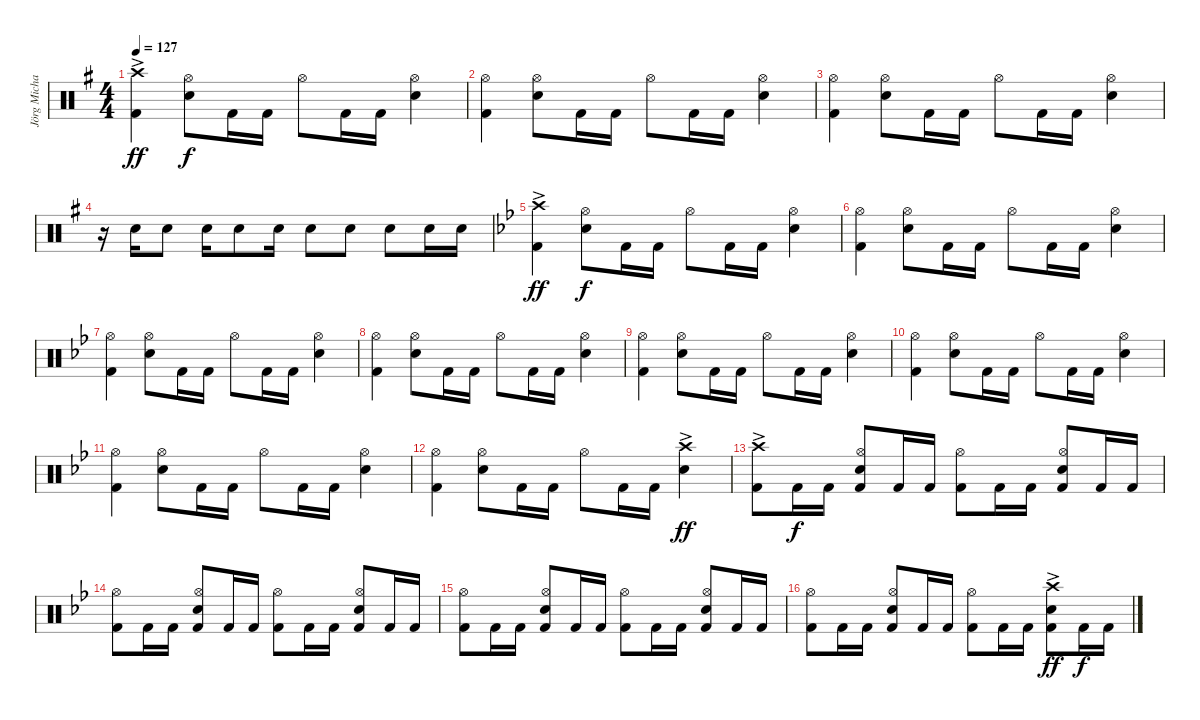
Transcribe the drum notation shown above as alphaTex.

\track ("Jörg Michael" "Jörg Micha") {instrument percussion}
\staff {score}
\articulation defaults
\ts (4 4)
\tempo 127
\clef neutral
\ks g
("Crash high (hit)"{ac} "Kick (hit) 2"{ac}).4{dy ff} ("Hi-Hat (open)" "Electric Snare (hit)").8{dy f} "Kick (hit) 2".16 "Kick (hit) 2".16 "Hi-Hat (open)".8 "Kick (hit) 2".16 "Kick (hit) 2".16 ("Hi-Hat (open)" "Electric Snare (hit)").4 |
("Hi-Hat (open)" "Kick (hit) 2").4 ("Hi-Hat (open)" "Electric Snare (hit)").8 "Kick (hit) 2".16 "Kick (hit) 2".16 "Hi-Hat (open)".8 "Kick (hit) 2".16 "Kick (hit) 2".16 ("Hi-Hat (open)" "Electric Snare (hit)").4 |
("Hi-Hat (open)" "Kick (hit) 2").4 ("Hi-Hat (open)" "Electric Snare (hit)").8 "Kick (hit) 2".16 "Kick (hit) 2".16 "Hi-Hat (open)".8 "Kick (hit) 2".16 "Kick (hit) 2".16 ("Hi-Hat (open)" "Electric Snare (hit)").4 |
r.16 "Electric Snare (hit)".16 "Electric Snare (hit)".8 "Electric Snare (hit)".16 "Electric Snare (hit)".8 "Electric Snare (hit)".16 "Electric Snare (hit)".8 "Electric Snare (hit)".8 "Electric Snare (hit)".8 "Electric Snare (hit)".16 "Electric Snare (hit)".16 |
\ks bb
("Crash high (hit)"{ac} "Kick (hit) 2"{ac}).4{dy ff} ("Hi-Hat (open)" "Electric Snare (hit)").8{dy f} "Kick (hit) 2".16 "Kick (hit) 2".16 "Hi-Hat (open)".8 "Kick (hit) 2".16 "Kick (hit) 2".16 ("Hi-Hat (open)" "Electric Snare (hit)").4 |
("Hi-Hat (open)" "Kick (hit) 2").4 ("Hi-Hat (open)" "Electric Snare (hit)").8 "Kick (hit) 2".16 "Kick (hit) 2".16 "Hi-Hat (open)".8 "Kick (hit) 2".16 "Kick (hit) 2".16 ("Hi-Hat (open)" "Electric Snare (hit)").4 |
("Hi-Hat (open)" "Kick (hit) 2").4 ("Hi-Hat (open)" "Electric Snare (hit)").8 "Kick (hit) 2".16 "Kick (hit) 2".16 "Hi-Hat (open)".8 "Kick (hit) 2".16 "Kick (hit) 2".16 ("Hi-Hat (open)" "Electric Snare (hit)").4 |
("Hi-Hat (open)" "Kick (hit) 2").4 ("Hi-Hat (open)" "Electric Snare (hit)").8 "Kick (hit) 2".16 "Kick (hit) 2".16 "Hi-Hat (open)".8 "Kick (hit) 2".16 "Kick (hit) 2".16 ("Hi-Hat (open)" "Electric Snare (hit)").4 |
("Hi-Hat (open)" "Kick (hit) 2").4 ("Hi-Hat (open)" "Electric Snare (hit)").8 "Kick (hit) 2".16 "Kick (hit) 2".16 "Hi-Hat (open)".8 "Kick (hit) 2".16 "Kick (hit) 2".16 ("Hi-Hat (open)" "Electric Snare (hit)").4 |
("Hi-Hat (open)" "Kick (hit) 2").4 ("Hi-Hat (open)" "Electric Snare (hit)").8 "Kick (hit) 2".16 "Kick (hit) 2".16 "Hi-Hat (open)".8 "Kick (hit) 2".16 "Kick (hit) 2".16 ("Hi-Hat (open)" "Electric Snare (hit)").4 |
("Hi-Hat (open)" "Kick (hit) 2").4 ("Hi-Hat (open)" "Electric Snare (hit)").8 "Kick (hit) 2".16 "Kick (hit) 2".16 "Hi-Hat (open)".8 "Kick (hit) 2".16 "Kick (hit) 2".16 ("Hi-Hat (open)" "Electric Snare (hit)").4 |
("Hi-Hat (open)" "Kick (hit) 2").4 ("Hi-Hat (open)" "Electric Snare (hit)").8 "Kick (hit) 2".16 "Kick (hit) 2".16 "Hi-Hat (open)".8 "Kick (hit) 2".16 "Kick (hit) 2".16 ("Crash high (hit)"{ac} "Electric Snare (hit)"{ac}).4{dy ff} |
("Crash high (hit)"{ac} "Kick (hit) 2"{ac}).8 "Kick (hit) 2".16{dy f} "Kick (hit) 2".16 ("Electric Snare (hit)" "Kick (hit) 2" "Hi-Hat (open)").8 "Kick (hit) 2".16 "Kick (hit) 2".16 ("Kick (hit) 2" "Hi-Hat (open)").8 "Kick (hit) 2".16 "Kick (hit) 2".16 ("Electric Snare (hit)" "Kick (hit) 2" "Hi-Hat (open)").8 "Kick (hit) 2".16 "Kick (hit) 2".16 |
("Hi-Hat (open)" "Kick (hit) 2").8 "Kick (hit) 2".16 "Kick (hit) 2".16 ("Electric Snare (hit)" "Kick (hit) 2" "Hi-Hat (open)").8 "Kick (hit) 2".16 "Kick (hit) 2".16 ("Kick (hit) 2" "Hi-Hat (open)").8 "Kick (hit) 2".16 "Kick (hit) 2".16 ("Electric Snare (hit)" "Kick (hit) 2" "Hi-Hat (open)").8 "Kick (hit) 2".16 "Kick (hit) 2".16 |
("Hi-Hat (open)" "Kick (hit) 2").8 "Kick (hit) 2".16 "Kick (hit) 2".16 ("Electric Snare (hit)" "Kick (hit) 2" "Hi-Hat (open)").8 "Kick (hit) 2".16 "Kick (hit) 2".16 ("Kick (hit) 2" "Hi-Hat (open)").8 "Kick (hit) 2".16 "Kick (hit) 2".16 ("Electric Snare (hit)" "Kick (hit) 2" "Hi-Hat (open)").8 "Kick (hit) 2".16 "Kick (hit) 2".16 |
("Hi-Hat (open)" "Kick (hit) 2").8 "Kick (hit) 2".16 "Kick (hit) 2".16 ("Electric Snare (hit)" "Kick (hit) 2" "Hi-Hat (open)").8 "Kick (hit) 2".16 "Kick (hit) 2".16 ("Kick (hit) 2" "Hi-Hat (open)").8 "Kick (hit) 2".16 "Kick (hit) 2".16 ("Electric Snare (hit)"{ac} "Kick (hit) 2"{ac} "Crash high (hit)"{ac}).8{dy ff} "Kick (hit) 2".16{dy f} "Kick (hit) 2".16
